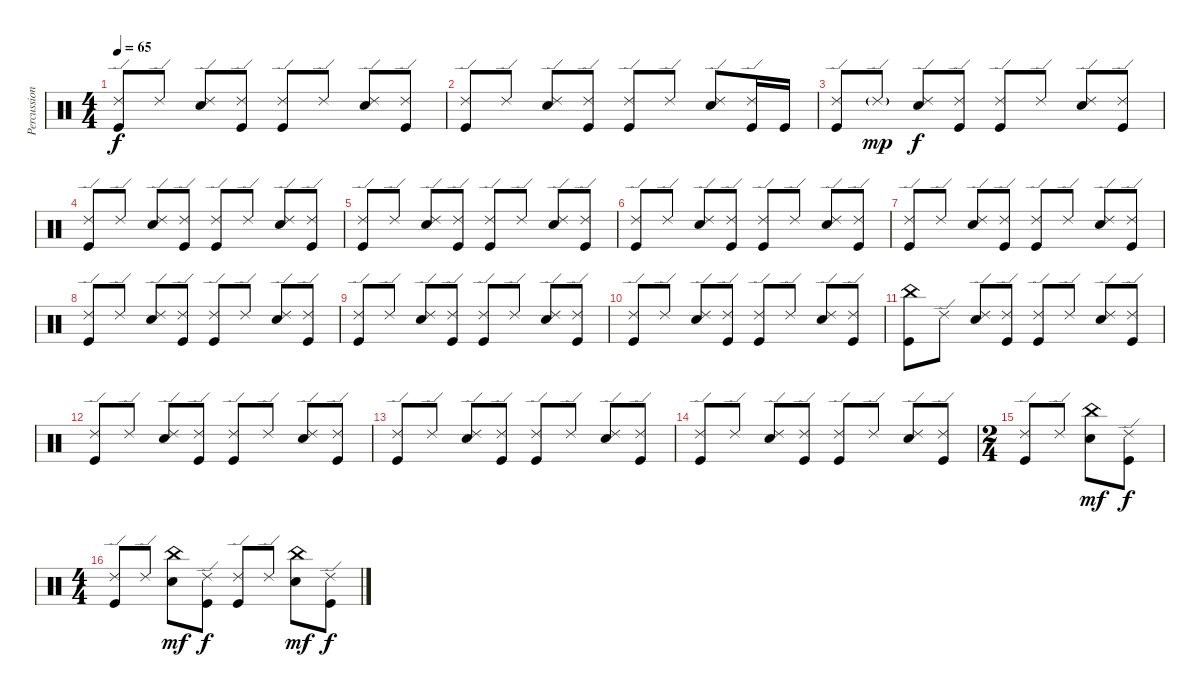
\track ("Percussion" "Percussion") {instrument percussion}
\staff {score}
\articulation defaults
\ts (4 4)
\tempo 65
\clef neutral
\ks c
("Ride (edge) 2" "Kick (hit)").8{dy f} "Ride (edge) 2".8 ("Ride (edge) 2" "Electric Snare (hit)").8 ("Ride (edge) 2" "Kick (hit)").8 ("Ride (edge) 2" "Kick (hit)").8 "Ride (edge) 2".8 ("Ride (edge) 2" "Electric Snare (hit)").8 ("Ride (edge) 2" "Kick (hit)").8 |
("Ride (edge) 2" "Kick (hit)").8 "Ride (edge) 2".8 ("Ride (edge) 2" "Electric Snare (hit)").8 ("Ride (edge) 2" "Kick (hit)").8 ("Ride (edge) 2" "Kick (hit)").8 "Ride (edge) 2".8 ("Ride (edge) 2" "Electric Snare (hit)").8 ("Ride (edge) 2" "Kick (hit)").16 "Kick (hit)".16 |
("Ride (edge) 2" "Kick (hit)").8 "Ride (edge) 2"{g}.8{dy mp} ("Ride (edge) 2" "Electric Snare (hit)").8{dy f} ("Ride (edge) 2" "Kick (hit)").8 ("Ride (edge) 2" "Kick (hit)").8 "Ride (edge) 2".8 ("Ride (edge) 2" "Electric Snare (hit)").8 ("Ride (edge) 2" "Kick (hit)").8 |
("Ride (edge) 2" "Kick (hit)").8 "Ride (edge) 2".8 ("Ride (edge) 2" "Electric Snare (hit)").8 ("Ride (edge) 2" "Kick (hit)").8 ("Ride (edge) 2" "Kick (hit)").8 "Ride (edge) 2".8 ("Ride (edge) 2" "Electric Snare (hit)").8 ("Ride (edge) 2" "Kick (hit)").8 |
("Ride (edge) 2" "Kick (hit)").8 "Ride (edge) 2".8 ("Ride (edge) 2" "Electric Snare (hit)").8 ("Ride (edge) 2" "Kick (hit)").8 ("Ride (edge) 2" "Kick (hit)").8 "Ride (edge) 2".8 ("Ride (edge) 2" "Electric Snare (hit)").8 ("Ride (edge) 2" "Kick (hit)").8 |
("Ride (edge) 2" "Kick (hit)").8 "Ride (edge) 2".8 ("Ride (edge) 2" "Electric Snare (hit)").8 ("Ride (edge) 2" "Kick (hit)").8 ("Ride (edge) 2" "Kick (hit)").8 "Ride (edge) 2".8 ("Ride (edge) 2" "Electric Snare (hit)").8 ("Ride (edge) 2" "Kick (hit)").8 |
("Ride (edge) 2" "Kick (hit)").8 "Ride (edge) 2".8 ("Ride (edge) 2" "Electric Snare (hit)").8 ("Ride (edge) 2" "Kick (hit)").8 ("Ride (edge) 2" "Kick (hit)").8 "Ride (edge) 2".8 ("Ride (edge) 2" "Electric Snare (hit)").8 ("Ride (edge) 2" "Kick (hit)").8 |
("Ride (edge) 2" "Kick (hit)").8 "Ride (edge) 2".8 ("Ride (edge) 2" "Electric Snare (hit)").8 ("Ride (edge) 2" "Kick (hit)").8 ("Ride (edge) 2" "Kick (hit)").8 "Ride (edge) 2".8 ("Ride (edge) 2" "Electric Snare (hit)").8 ("Ride (edge) 2" "Kick (hit)").8 |
("Ride (edge) 2" "Kick (hit)").8 "Ride (edge) 2".8 ("Ride (edge) 2" "Electric Snare (hit)").8 ("Ride (edge) 2" "Kick (hit)").8 ("Ride (edge) 2" "Kick (hit)").8 "Ride (edge) 2".8 ("Ride (edge) 2" "Electric Snare (hit)").8 ("Ride (edge) 2" "Kick (hit)").8 |
("Ride (edge) 2" "Kick (hit)").8 "Ride (edge) 2".8 ("Ride (edge) 2" "Electric Snare (hit)").8 ("Ride (edge) 2" "Kick (hit)").8 ("Ride (edge) 2" "Kick (hit)").8 "Ride (edge) 2".8 ("Ride (edge) 2" "Electric Snare (hit)").8 ("Ride (edge) 2" "Kick (hit)").8 |
("China (hit)" "Kick (hit)").8 "Ride (edge) 2".8 ("Ride (edge) 2" "Electric Snare (hit)").8 ("Ride (edge) 2" "Kick (hit)").8 ("Ride (edge) 2" "Kick (hit)").8 "Ride (edge) 2".8 ("Ride (edge) 2" "Electric Snare (hit)").8 ("Ride (edge) 2" "Kick (hit)").8 |
("Ride (edge) 2" "Kick (hit)").8 "Ride (edge) 2".8 ("Ride (edge) 2" "Electric Snare (hit)").8 ("Ride (edge) 2" "Kick (hit)").8 ("Ride (edge) 2" "Kick (hit)").8 "Ride (edge) 2".8 ("Ride (edge) 2" "Electric Snare (hit)").8 ("Ride (edge) 2" "Kick (hit)").8 |
("Ride (edge) 2" "Kick (hit)").8 "Ride (edge) 2".8 ("Ride (edge) 2" "Electric Snare (hit)").8 ("Ride (edge) 2" "Kick (hit)").8 ("Ride (edge) 2" "Kick (hit)").8 "Ride (edge) 2".8 ("Ride (edge) 2" "Electric Snare (hit)").8 ("Ride (edge) 2" "Kick (hit)").8 |
("Ride (edge) 2" "Kick (hit)").8 "Ride (edge) 2".8 ("Ride (edge) 2" "Electric Snare (hit)").8 ("Ride (edge) 2" "Kick (hit)").8 ("Ride (edge) 2" "Kick (hit)").8 "Ride (edge) 2".8 ("Ride (edge) 2" "Electric Snare (hit)").8 ("Ride (edge) 2" "Kick (hit)").8 |
\ts (2 4)
("Ride (edge) 2" "Kick (hit)").8 "Ride (edge) 2".8 ("China (hit)" "Electric Snare (hit)").8{dy mf} ("Ride (edge) 2" "Kick (hit)").8{dy f} |
\ts (4 4)
("Ride (edge) 2" "Kick (hit)").8 "Ride (edge) 2".8 ("China (hit)" "Electric Snare (hit)").8{dy mf} ("Ride (edge) 2" "Kick (hit)").8{dy f} ("Ride (edge) 2" "Kick (hit)").8 "Ride (edge) 2".8 ("China (hit)" "Electric Snare (hit)").8{dy mf} ("Ride (edge) 2" "Kick (hit)").8{dy f}
